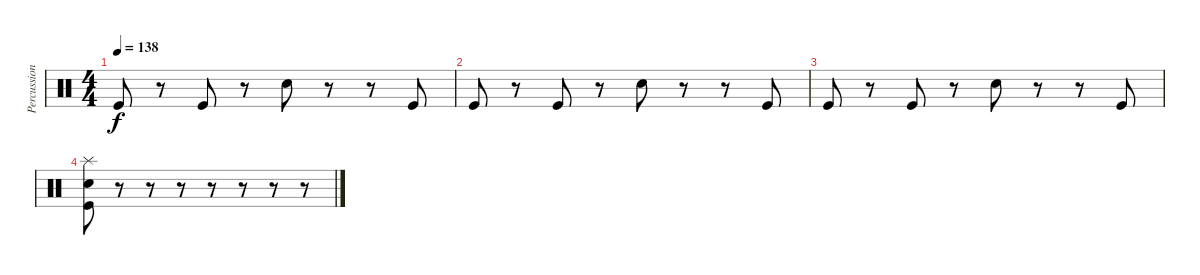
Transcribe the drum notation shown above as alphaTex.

\track ("Percussions" "Percussion") {instrument percussion}
\staff {score}
\articulation defaults
\ts (4 4)
\tempo 138
\clef neutral
\ks c "Kick (hit)".8{dy f}
r.8 "Kick (hit)".8 r.8 "Electric Snare (hit)".8 r.8 r.8 "Kick (hit)".8 |
"Kick (hit)".8 r.8 "Kick (hit)".8 r.8 "Electric Snare (hit)".8 r.8 r.8 "Kick (hit)".8 |
"Kick (hit)".8 r.8 "Kick (hit)".8 r.8 "Electric Snare (hit)".8 r.8 r.8 "Kick (hit)".8 |
("Splash (hit)" "Electric Snare (hit)" "Kick (hit)").8 r.8 r.8 r.8 r.8 r.8 r.8 r.8
